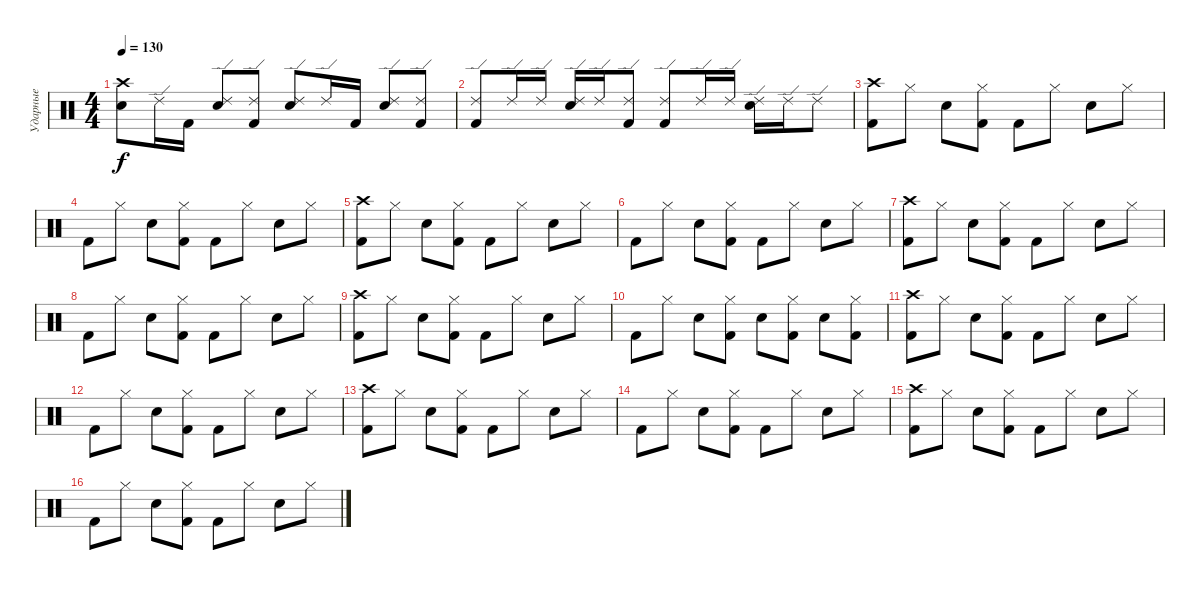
\track ("Ударные" "Ударные") {instrument percussion}
\staff {score}
\articulation defaults
\ts (4 4)
\tempo 130
\clef neutral
\ks c
("Electric Snare (hit)" "Crash high (hit)").8{dy f} "Ride (edge) 2".16 "Kick (hit) 2".16 ("Electric Snare (hit)" "Ride (edge) 2").8 ("Kick (hit) 2" "Ride (edge) 2").8 ("Electric Snare (hit)" "Ride (edge) 2").8 "Ride (edge) 2".16 "Kick (hit) 2".16 ("Electric Snare (hit)" "Ride (edge) 2").8 ("Kick (hit) 2" "Ride (edge) 2").8 |
("Kick (hit) 2" "Ride (edge) 2").8 "Ride (edge) 2".16 "Ride (edge) 2".16 ("Electric Snare (hit)" "Ride (edge) 2").16 "Ride (edge) 2".16 ("Kick (hit) 2" "Ride (edge) 2").8 ("Kick (hit) 2" "Ride (edge) 2").8 "Ride (edge) 2".16 "Ride (edge) 2".16 ("Electric Snare (hit)" "Ride (edge) 2").16 "Ride (edge) 2".16 "Ride (edge) 2".8 |
("Kick (hit) 2" "Crash high (hit)").8 "Hi-Hat (closed)".8 "Electric Snare (hit)".8 ("Kick (hit) 2" "Hi-Hat (closed)").8 "Kick (hit) 2".8 "Hi-Hat (closed)".8 "Electric Snare (hit)".8 "Hi-Hat (closed)".8 |
"Kick (hit) 2".8 "Hi-Hat (closed)".8 "Electric Snare (hit)".8 ("Kick (hit) 2" "Hi-Hat (closed)").8 "Kick (hit) 2".8 "Hi-Hat (closed)".8 "Electric Snare (hit)".8 "Hi-Hat (closed)".8 |
("Kick (hit) 2" "Crash high (hit)").8 "Hi-Hat (closed)".8 "Electric Snare (hit)".8 ("Kick (hit) 2" "Hi-Hat (closed)").8 "Kick (hit) 2".8 "Hi-Hat (closed)".8 "Electric Snare (hit)".8 "Hi-Hat (closed)".8 |
"Kick (hit) 2".8 "Hi-Hat (closed)".8 "Electric Snare (hit)".8 ("Kick (hit) 2" "Hi-Hat (closed)").8 "Kick (hit) 2".8 "Hi-Hat (closed)".8 "Electric Snare (hit)".8 "Hi-Hat (closed)".8 |
("Kick (hit) 2" "Crash high (hit)").8 "Hi-Hat (closed)".8 "Electric Snare (hit)".8 ("Kick (hit) 2" "Hi-Hat (closed)").8 "Kick (hit) 2".8 "Hi-Hat (closed)".8 "Electric Snare (hit)".8 "Hi-Hat (closed)".8 |
"Kick (hit) 2".8 "Hi-Hat (closed)".8 "Electric Snare (hit)".8 ("Kick (hit) 2" "Hi-Hat (closed)").8 "Kick (hit) 2".8 "Hi-Hat (closed)".8 "Electric Snare (hit)".8 "Hi-Hat (closed)".8 |
("Kick (hit) 2" "Crash high (hit)").8 "Hi-Hat (closed)".8 "Electric Snare (hit)".8 ("Kick (hit) 2" "Hi-Hat (closed)").8 "Kick (hit) 2".8 "Hi-Hat (closed)".8 "Electric Snare (hit)".8 "Hi-Hat (closed)".8 |
"Kick (hit) 2".8 "Hi-Hat (closed)".8 "Electric Snare (hit)".8 ("Kick (hit) 2" "Hi-Hat (closed)").8 "Electric Snare (hit)".8 ("Kick (hit) 2" "Hi-Hat (closed)").8 "Electric Snare (hit)".8 ("Kick (hit) 2" "Hi-Hat (closed)").8 |
("Kick (hit) 2" "Crash high (hit)").8 "Hi-Hat (closed)".8 "Electric Snare (hit)".8 ("Kick (hit) 2" "Hi-Hat (closed)").8 "Kick (hit) 2".8 "Hi-Hat (closed)".8 "Electric Snare (hit)".8 "Hi-Hat (closed)".8 |
"Kick (hit) 2".8 "Hi-Hat (closed)".8 "Electric Snare (hit)".8 ("Kick (hit) 2" "Hi-Hat (closed)").8 "Kick (hit) 2".8 "Hi-Hat (closed)".8 "Electric Snare (hit)".8 "Hi-Hat (closed)".8 |
("Kick (hit) 2" "Crash high (hit)").8 "Hi-Hat (closed)".8 "Electric Snare (hit)".8 ("Kick (hit) 2" "Hi-Hat (closed)").8 "Kick (hit) 2".8 "Hi-Hat (closed)".8 "Electric Snare (hit)".8 "Hi-Hat (closed)".8 |
"Kick (hit) 2".8 "Hi-Hat (closed)".8 "Electric Snare (hit)".8 ("Kick (hit) 2" "Hi-Hat (closed)").8 "Kick (hit) 2".8 "Hi-Hat (closed)".8 "Electric Snare (hit)".8 "Hi-Hat (closed)".8 |
("Kick (hit) 2" "Crash high (hit)").8 "Hi-Hat (closed)".8 "Electric Snare (hit)".8 ("Kick (hit) 2" "Hi-Hat (closed)").8 "Kick (hit) 2".8 "Hi-Hat (closed)".8 "Electric Snare (hit)".8 "Hi-Hat (closed)".8 |
"Kick (hit) 2".8 "Hi-Hat (closed)".8 "Electric Snare (hit)".8 ("Kick (hit) 2" "Hi-Hat (closed)").8 "Kick (hit) 2".8 "Hi-Hat (closed)".8 "Electric Snare (hit)".8 "Hi-Hat (closed)".8
